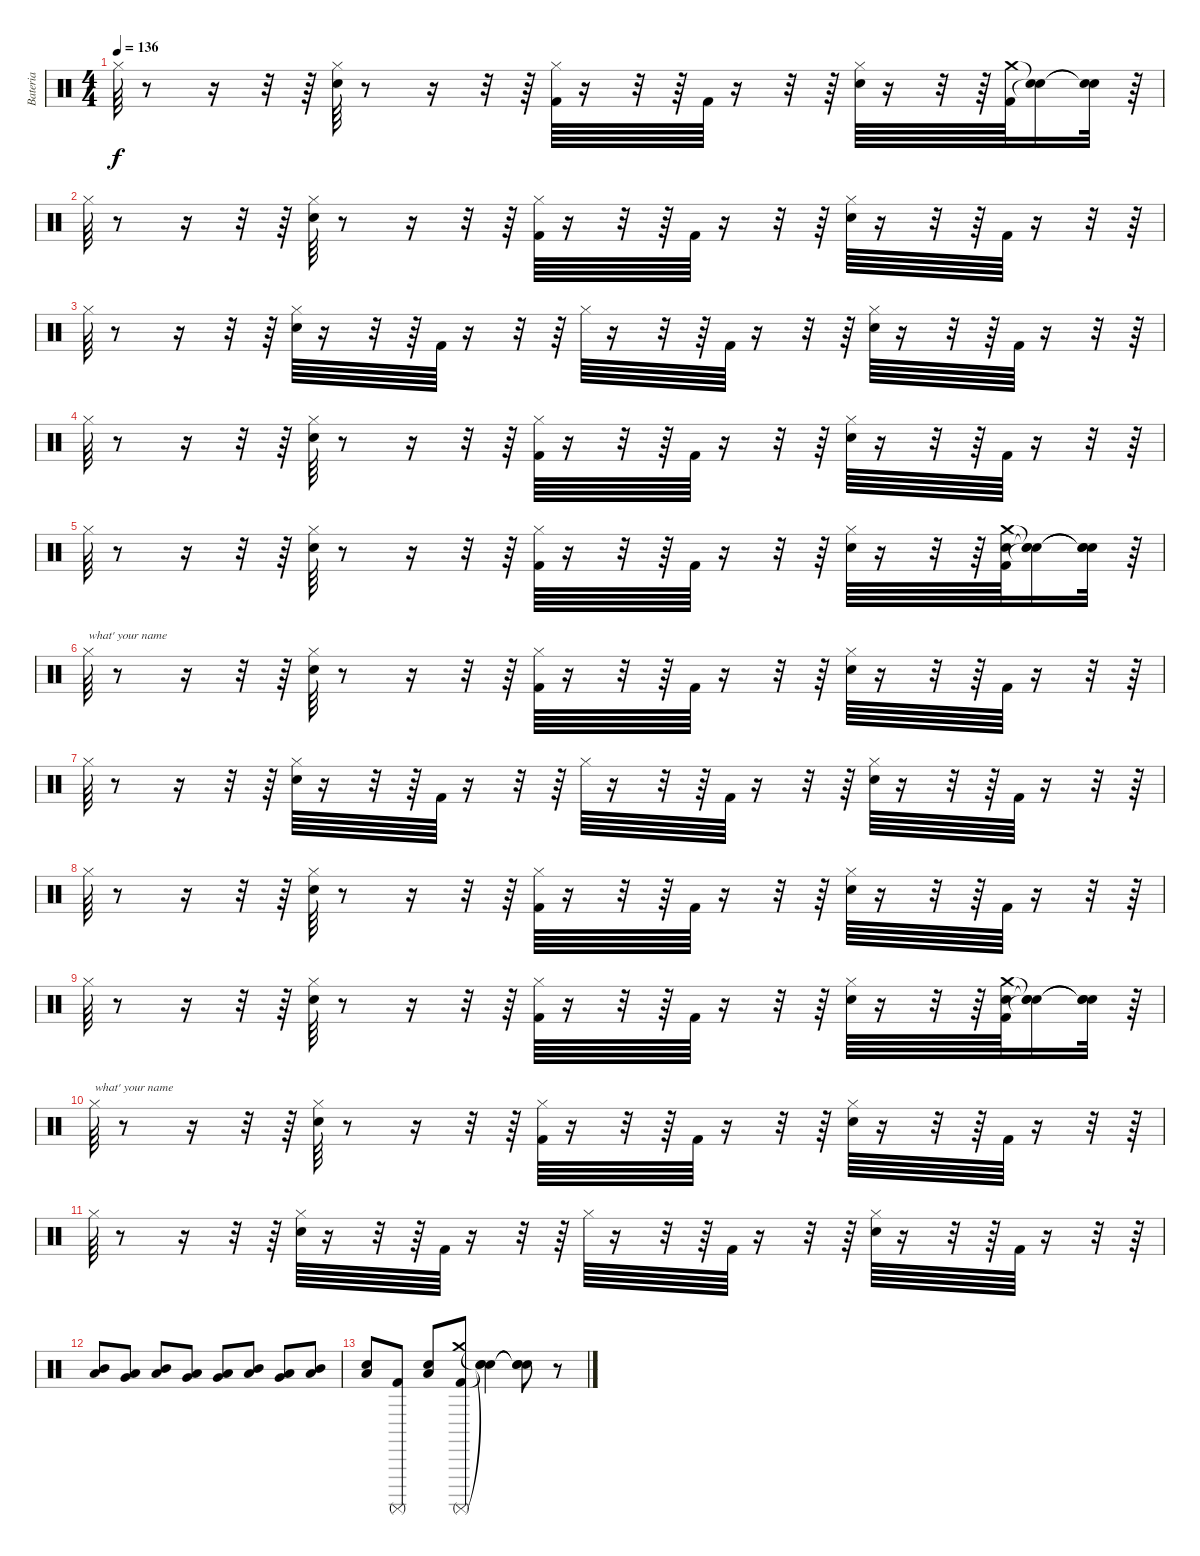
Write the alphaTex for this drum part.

\track ("Bateria" "Bateria") {instrument percussion}
\staff {score}
\articulation defaults
\ts (4 4)
\tempo 136
\clef neutral
\ks c "Hi-Hat (closed)".64{dy f}
r.8 r.16 r.32 r.64 ("Snare (hit) 2" "Hi-Hat (closed)").64 r.8 r.16 r.32 r.64 ("Kick (hit) 2" "Hi-Hat (closed)").64 r.16 r.32 r.64 "Kick (hit) 2".64 r.16 r.32 r.64 ("Snare (hit) 2" "Hi-Hat (closed)").64 r.16 r.32 r.64 ("Kick (hit) 2" "Crash medium (hit)").64 ("Snare (hit)"{t} "Snare (hit)"{t}).16 ("Snare (hit)"{t} "Snare (hit)"{t}).32 r.64 |
"Hi-Hat (closed)".64 r.8 r.16 r.32 r.64 ("Snare (hit) 2" "Hi-Hat (closed)").64 r.8 r.16 r.32 r.64 ("Kick (hit) 2" "Hi-Hat (closed)").64 r.16 r.32 r.64 "Kick (hit) 2".64 r.16 r.32 r.64 ("Snare (hit) 2" "Hi-Hat (closed)").64 r.16 r.32 r.64 "Kick (hit) 2".64 r.16 r.32 r.64 |
"Hi-Hat (closed)".64 r.8 r.16 r.32 r.64 ("Snare (hit) 2" "Hi-Hat (closed)").64 r.16 r.32 r.64 "Kick (hit) 2".64 r.16 r.32 r.64 "Hi-Hat (closed)".64 r.16 r.32 r.64 "Kick (hit) 2".64 r.16 r.32 r.64 ("Snare (hit) 2" "Hi-Hat (closed)").64 r.16 r.32 r.64 "Kick (hit) 2".64 r.16 r.32 r.64 |
"Hi-Hat (closed)".64 r.8 r.16 r.32 r.64 ("Snare (hit) 2" "Hi-Hat (closed)").64 r.8 r.16 r.32 r.64 ("Kick (hit) 2" "Hi-Hat (closed)").64 r.16 r.32 r.64 "Kick (hit) 2".64 r.16 r.32 r.64 ("Snare (hit) 2" "Hi-Hat (closed)").64 r.16 r.32 r.64 "Kick (hit) 2".64 r.16 r.32 r.64 |
"Hi-Hat (closed)".64 r.8 r.16 r.32 r.64 ("Snare (hit) 2" "Hi-Hat (closed)").64 r.8 r.16 r.32 r.64 ("Kick (hit) 2" "Hi-Hat (closed)").64 r.16 r.32 r.64 "Kick (hit) 2".64 r.16 r.32 r.64 ("Snare (hit) 2" "Hi-Hat (closed)").64 r.16 r.32 r.64 ("Kick (hit) 2" "Snare (hit) 2" "Crash medium (hit)").64 ("Snare (hit)"{t} "Snare (hit)"{t} "Snare (hit)"{t}).16 ("Snare (hit)"{t} "Snare (hit)"{t} "Snare (hit)"{t}).32 r.64 |
"Hi-Hat (closed)".64{txt "what' your name"} r.8 r.16 r.32 r.64 ("Snare (hit) 2" "Hi-Hat (closed)").64 r.8 r.16 r.32 r.64 ("Kick (hit) 2" "Hi-Hat (closed)").64 r.16 r.32 r.64 "Kick (hit) 2".64 r.16 r.32 r.64 ("Snare (hit) 2" "Hi-Hat (closed)").64 r.16 r.32 r.64 "Kick (hit) 2".64 r.16 r.32 r.64 |
"Hi-Hat (closed)".64 r.8 r.16 r.32 r.64 ("Snare (hit) 2" "Hi-Hat (closed)").64 r.16 r.32 r.64 "Kick (hit) 2".64 r.16 r.32 r.64 "Hi-Hat (closed)".64 r.16 r.32 r.64 "Kick (hit) 2".64 r.16 r.32 r.64 ("Snare (hit) 2" "Hi-Hat (closed)").64 r.16 r.32 r.64 "Kick (hit) 2".64 r.16 r.32 r.64 |
"Hi-Hat (closed)".64 r.8 r.16 r.32 r.64 ("Snare (hit) 2" "Hi-Hat (closed)").64 r.8 r.16 r.32 r.64 ("Kick (hit) 2" "Hi-Hat (closed)").64 r.16 r.32 r.64 "Kick (hit) 2".64 r.16 r.32 r.64 ("Snare (hit) 2" "Hi-Hat (closed)").64 r.16 r.32 r.64 "Kick (hit) 2".64 r.16 r.32 r.64 |
"Hi-Hat (closed)".64 r.8 r.16 r.32 r.64 ("Snare (hit) 2" "Hi-Hat (closed)").64 r.8 r.16 r.32 r.64 ("Kick (hit) 2" "Hi-Hat (closed)").64 r.16 r.32 r.64 "Kick (hit) 2".64 r.16 r.32 r.64 ("Snare (hit) 2" "Hi-Hat (closed)").64 r.16 r.32 r.64 ("Kick (hit) 2" "Snare (hit) 2" "Crash medium (hit)").64 ("Snare (hit)"{t} "Snare (hit)"{t} "Snare (hit)"{t}).16 ("Snare (hit)"{t} "Snare (hit)"{t} "Snare (hit)"{t}).32 r.64 |
"Hi-Hat (closed)".64{txt "what' your name"} r.8 r.16 r.32 r.64 ("Snare (hit) 2" "Hi-Hat (closed)").64 r.8 r.16 r.32 r.64 ("Kick (hit) 2" "Hi-Hat (closed)").64 r.16 r.32 r.64 "Kick (hit) 2".64 r.16 r.32 r.64 ("Snare (hit) 2" "Hi-Hat (closed)").64 r.16 r.32 r.64 "Kick (hit) 2".64 r.16 r.32 r.64 |
"Hi-Hat (closed)".64 r.8 r.16 r.32 r.64 ("Snare (hit) 2" "Hi-Hat (closed)").64 r.16 r.32 r.64 "Kick (hit) 2".64 r.16 r.32 r.64 "Hi-Hat (closed)".64 r.16 r.32 r.64 "Kick (hit) 2".64 r.16 r.32 r.64 ("Snare (hit) 2" "Hi-Hat (closed)").64 r.16 r.32 r.64 "Kick (hit) 2".64 r.16 r.32 r.64 |
("Low Tom (hit)" "Mid Tom (hit)").8 ("Low Floor Tom (hit)" "Very Low Tom (hit)").8 ("Low Tom (hit)" "Mid Tom (hit)").8 ("Low Floor Tom (hit)" "Very Low Tom (hit)").8 ("Low Floor Tom (hit)" "Very Low Tom (hit)").8 ("Low Tom (hit)" "Mid Tom (hit)").8 ("Low Floor Tom (hit)" "Very Low Tom (hit)").8 ("Low Tom (hit)" "Mid Tom (hit)").8 |
("Snare (hit) 2" "Low Tom (hit)").8 ("Surdo (mute)" "Kick (hit) 2").8 ("Snare (hit) 2" "Low Tom (hit)").8 ("Surdo (mute)" "Kick (hit) 2" "Crash medium (hit)").8 ("Snare (hit)"{t} "Snare (hit)"{t} "Snare (hit)"{t}).4 ("Snare (hit)"{t} "Snare (hit)"{t} "Snare (hit)"{t}).8 r.8
